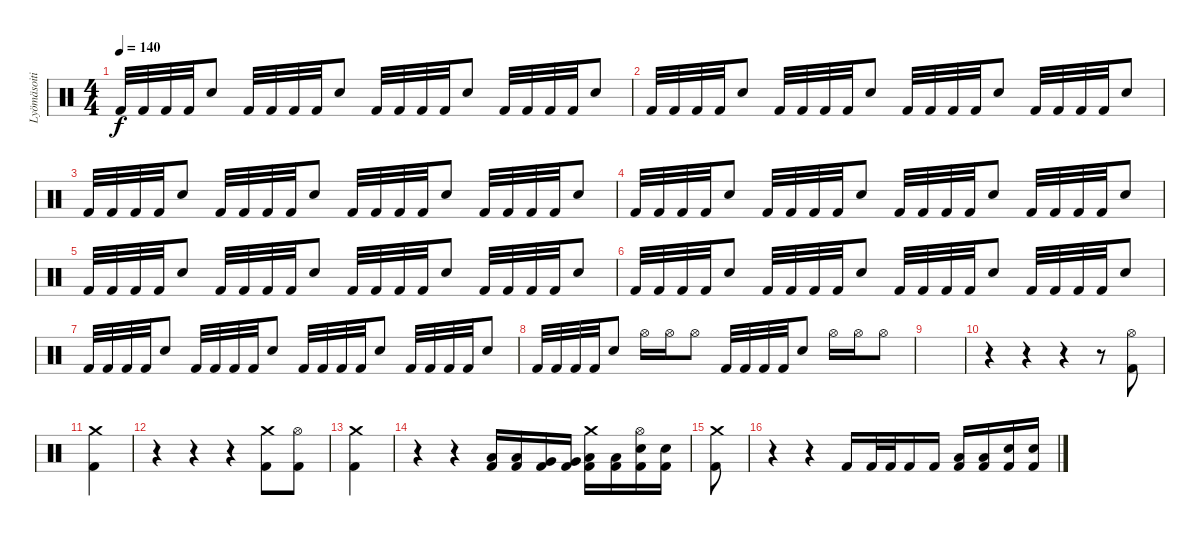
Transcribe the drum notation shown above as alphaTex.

\track ("Lyömäsoitin" "Lyömäsoiti") {instrument percussion}
\staff {score}
\articulation defaults
\ts (4 4)
\tempo 140
\clef neutral
\ks c "Kick (hit) 2".32{dy f} "Kick (hit) 2".32 "Kick (hit) 2".32 "Kick (hit) 2".32 "Electric Snare (hit)".8 "Kick (hit) 2".32 "Kick (hit) 2".32 "Kick (hit) 2".32 "Kick (hit) 2".32 "Electric Snare (hit)".8 "Kick (hit) 2".32 "Kick (hit) 2".32 "Kick (hit) 2".32 "Kick (hit) 2".32 "Electric Snare (hit)".8 "Kick (hit) 2".32 "Kick (hit) 2".32 "Kick (hit) 2".32 "Kick (hit) 2".32 "Electric Snare (hit)".8
|
"Kick (hit) 2".32 "Kick (hit) 2".32 "Kick (hit) 2".32 "Kick (hit) 2".32 "Electric Snare (hit)".8 "Kick (hit) 2".32 "Kick (hit) 2".32 "Kick (hit) 2".32 "Kick (hit) 2".32 "Electric Snare (hit)".8 "Kick (hit) 2".32 "Kick (hit) 2".32 "Kick (hit) 2".32 "Kick (hit) 2".32 "Electric Snare (hit)".8 "Kick (hit) 2".32 "Kick (hit) 2".32 "Kick (hit) 2".32 "Kick (hit) 2".32 "Electric Snare (hit)".8 |
"Kick (hit) 2".32 "Kick (hit) 2".32 "Kick (hit) 2".32 "Kick (hit) 2".32 "Electric Snare (hit)".8 "Kick (hit) 2".32 "Kick (hit) 2".32 "Kick (hit) 2".32 "Kick (hit) 2".32 "Electric Snare (hit)".8 "Kick (hit) 2".32 "Kick (hit) 2".32 "Kick (hit) 2".32 "Kick (hit) 2".32 "Electric Snare (hit)".8 "Kick (hit) 2".32 "Kick (hit) 2".32 "Kick (hit) 2".32 "Kick (hit) 2".32 "Electric Snare (hit)".8 |
"Kick (hit) 2".32 "Kick (hit) 2".32 "Kick (hit) 2".32 "Kick (hit) 2".32 "Electric Snare (hit)".8 "Kick (hit) 2".32 "Kick (hit) 2".32 "Kick (hit) 2".32 "Kick (hit) 2".32 "Electric Snare (hit)".8 "Kick (hit) 2".32 "Kick (hit) 2".32 "Kick (hit) 2".32 "Kick (hit) 2".32 "Electric Snare (hit)".8 "Kick (hit) 2".32 "Kick (hit) 2".32 "Kick (hit) 2".32 "Kick (hit) 2".32 "Electric Snare (hit)".8 |
"Kick (hit) 2".32 "Kick (hit) 2".32 "Kick (hit) 2".32 "Kick (hit) 2".32 "Electric Snare (hit)".8 "Kick (hit) 2".32 "Kick (hit) 2".32 "Kick (hit) 2".32 "Kick (hit) 2".32 "Electric Snare (hit)".8 "Kick (hit) 2".32 "Kick (hit) 2".32 "Kick (hit) 2".32 "Kick (hit) 2".32 "Electric Snare (hit)".8 "Kick (hit) 2".32 "Kick (hit) 2".32 "Kick (hit) 2".32 "Kick (hit) 2".32 "Electric Snare (hit)".8 |
"Kick (hit) 2".32 "Kick (hit) 2".32 "Kick (hit) 2".32 "Kick (hit) 2".32 "Electric Snare (hit)".8 "Kick (hit) 2".32 "Kick (hit) 2".32 "Kick (hit) 2".32 "Kick (hit) 2".32 "Electric Snare (hit)".8 "Kick (hit) 2".32 "Kick (hit) 2".32 "Kick (hit) 2".32 "Kick (hit) 2".32 "Electric Snare (hit)".8 "Kick (hit) 2".32 "Kick (hit) 2".32 "Kick (hit) 2".32 "Kick (hit) 2".32 "Electric Snare (hit)".8 |
"Kick (hit) 2".32 "Kick (hit) 2".32 "Kick (hit) 2".32 "Kick (hit) 2".32 "Electric Snare (hit)".8 "Kick (hit) 2".32 "Kick (hit) 2".32 "Kick (hit) 2".32 "Kick (hit) 2".32 "Electric Snare (hit)".8 "Kick (hit) 2".32 "Kick (hit) 2".32 "Kick (hit) 2".32 "Kick (hit) 2".32 "Electric Snare (hit)".8 "Kick (hit) 2".32 "Kick (hit) 2".32 "Kick (hit) 2".32 "Kick (hit) 2".32 "Electric Snare (hit)".8 |
"Kick (hit) 2".32 "Kick (hit) 2".32 "Kick (hit) 2".32 "Kick (hit) 2".32 "Electric Snare (hit)".8 "Hi-Hat (open)".16 "Hi-Hat (open)".16 "Hi-Hat (open)".8 "Kick (hit) 2".32 "Kick (hit) 2".32 "Kick (hit) 2".32 "Kick (hit) 2".32 "Electric Snare (hit)".8 "Hi-Hat (open)".16 "Hi-Hat (open)".16 "Hi-Hat (open)".8 |
|
r.4 r.4 r.4 r.8 ("Hi-Hat (open)" "Kick (hit) 2").8 |
("Crash medium (hit)" "Kick (hit) 2").4 |
r.4 r.4 r.4 ("Kick (hit) 2" "Crash medium (hit)").8 ("Hi-Hat (open)" "Kick (hit) 2").8 |
("Crash medium (hit)" "Kick (hit) 2").4 |
r.4 r.4 ("Low Floor Tom (hit)" "Kick (hit) 2").16 ("Low Floor Tom (hit)" "Kick (hit) 2").16 ("Very Low Tom (hit)" "Kick (hit) 2").16 ("Very Low Tom (hit)" "Kick (hit) 2").16 ("Crash medium (hit)" "Low Tom (hit)" "Kick (hit) 2").16 ("Low Tom (hit)" "Kick (hit) 2").16 ("Hi-Hat (open)" "Electric Snare (hit)" "Kick (hit) 2").16 ("Electric Snare (hit)" "Kick (hit) 2").16 |
("Crash medium (hit)" "Kick (hit) 2").8 |
r.4 r.4 "Kick (hit) 2".16 "Kick (hit) 2".32 "Kick (hit) 2".32 "Kick (hit) 2".16 "Kick (hit) 2".16 ("Low Floor Tom (hit)" "Kick (hit) 2").16 ("Low Floor Tom (hit)" "Kick (hit) 2").16 ("Electric Snare (hit)" "Kick (hit) 2").16 ("Electric Snare (hit)" "Kick (hit) 2").16
